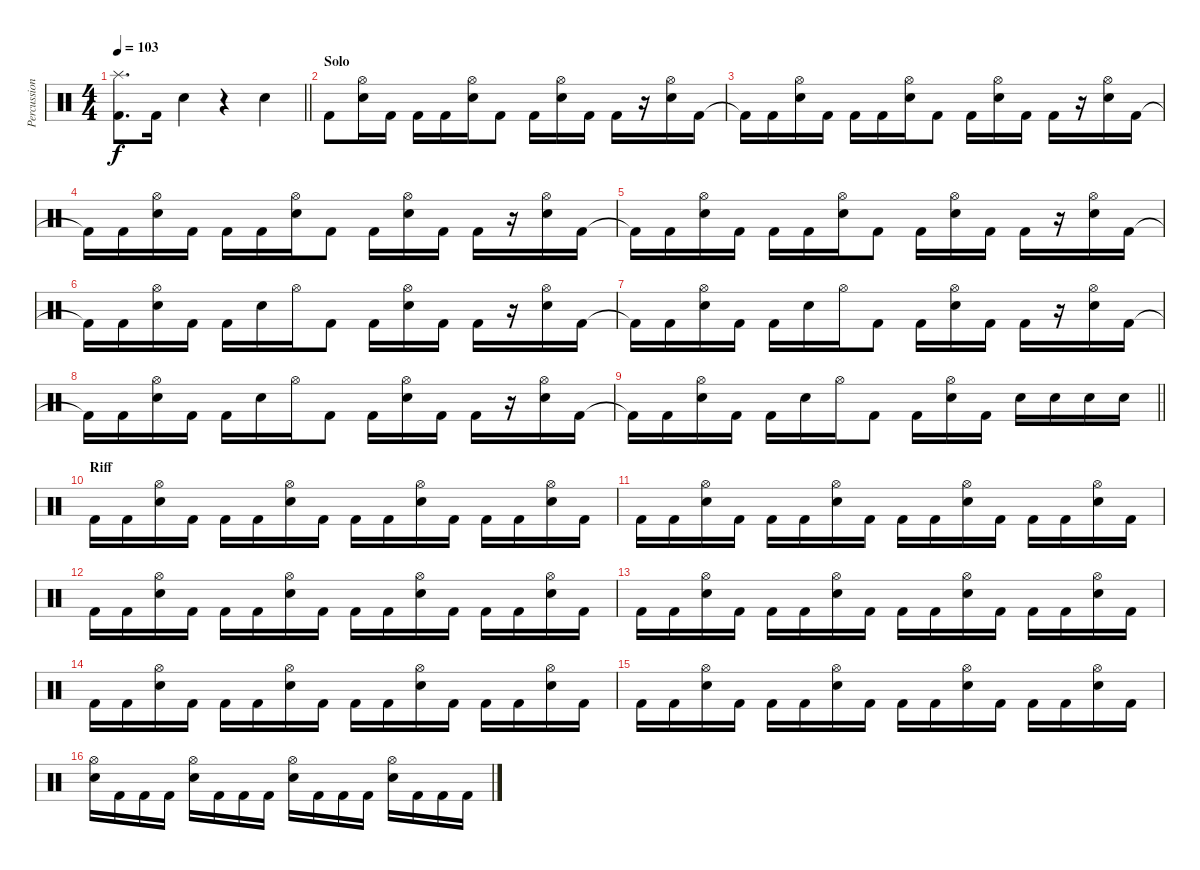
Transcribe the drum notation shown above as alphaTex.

\track ("Percussion" "Percussion") {instrument percussion}
\staff {score}
\articulation defaults
\ts (4 4)
\tempo 103
\clef neutral
\barLineRight lightlight
\ks aminor
("Splash (hit)" "Kick (hit) 2").8{d dy f} "Kick (hit) 2".16 "Electric Snare (hit)".4 r.4 "Electric Snare (hit)".4 |
\section ("" "Solo")
"Kick (hit) 2".8 ("Hi-Hat (open)" "Electric Snare (hit)").16 "Kick (hit) 2".16 "Kick (hit) 2".16 "Kick (hit) 2".16 ("Hi-Hat (open)" "Electric Snare (hit)").16 "Kick (hit) 2".8 "Kick (hit) 2".16 ("Hi-Hat (open)" "Electric Snare (hit)").16 "Kick (hit) 2".16 "Kick (hit) 2".16 r.16 ("Hi-Hat (open)" "Electric Snare (hit)").16 "Kick (hit) 2".16 |
"Kick (hit) 2"{t}.16 "Kick (hit) 2".16 ("Hi-Hat (open)" "Electric Snare (hit)").16 "Kick (hit) 2".16 "Kick (hit) 2".16 "Kick (hit) 2".16 ("Hi-Hat (open)" "Electric Snare (hit)").16 "Kick (hit) 2".8 "Kick (hit) 2".16 ("Hi-Hat (open)" "Electric Snare (hit)").16 "Kick (hit) 2".16 "Kick (hit) 2".16 r.16 ("Hi-Hat (open)" "Electric Snare (hit)").16 "Kick (hit) 2".16 |
"Kick (hit) 2"{t}.16 "Kick (hit) 2".16 ("Hi-Hat (open)" "Electric Snare (hit)").16 "Kick (hit) 2".16 "Kick (hit) 2".16 "Kick (hit) 2".16 ("Hi-Hat (open)" "Electric Snare (hit)").16 "Kick (hit) 2".8 "Kick (hit) 2".16 ("Hi-Hat (open)" "Electric Snare (hit)").16 "Kick (hit) 2".16 "Kick (hit) 2".16 r.16 ("Hi-Hat (open)" "Electric Snare (hit)").16 "Kick (hit) 2".16 |
"Kick (hit) 2"{t}.16 "Kick (hit) 2".16 ("Hi-Hat (open)" "Electric Snare (hit)").16 "Kick (hit) 2".16 "Kick (hit) 2".16 "Kick (hit) 2".16 ("Hi-Hat (open)" "Electric Snare (hit)").16 "Kick (hit) 2".8 "Kick (hit) 2".16 ("Hi-Hat (open)" "Electric Snare (hit)").16 "Kick (hit) 2".16 "Kick (hit) 2".16 r.16 ("Hi-Hat (open)" "Electric Snare (hit)").16 "Kick (hit) 2".16 |
"Kick (hit) 2"{t}.16 "Kick (hit) 2".16 ("Hi-Hat (open)" "Electric Snare (hit)").16 "Kick (hit) 2".16 "Kick (hit) 2".16 "Electric Snare (hit)".16 "Hi-Hat (open)".16 "Kick (hit) 2".8 "Kick (hit) 2".16 ("Hi-Hat (open)" "Electric Snare (hit)").16 "Kick (hit) 2".16 "Kick (hit) 2".16 r.16 ("Hi-Hat (open)" "Electric Snare (hit)").16 "Kick (hit) 2".16 |
"Kick (hit) 2"{t}.16 "Kick (hit) 2".16 ("Hi-Hat (open)" "Electric Snare (hit)").16 "Kick (hit) 2".16 "Kick (hit) 2".16 "Electric Snare (hit)".16 "Hi-Hat (open)".16 "Kick (hit) 2".8 "Kick (hit) 2".16 ("Hi-Hat (open)" "Electric Snare (hit)").16 "Kick (hit) 2".16 "Kick (hit) 2".16 r.16 ("Hi-Hat (open)" "Electric Snare (hit)").16 "Kick (hit) 2".16 |
"Kick (hit) 2"{t}.16 "Kick (hit) 2".16 ("Hi-Hat (open)" "Electric Snare (hit)").16 "Kick (hit) 2".16 "Kick (hit) 2".16 "Electric Snare (hit)".16 "Hi-Hat (open)".16 "Kick (hit) 2".8 "Kick (hit) 2".16 ("Hi-Hat (open)" "Electric Snare (hit)").16 "Kick (hit) 2".16 "Kick (hit) 2".16 r.16 ("Hi-Hat (open)" "Electric Snare (hit)").16 "Kick (hit) 2".16 |
\barLineRight lightlight "Kick (hit) 2"{t}.16 "Kick (hit) 2".16
("Hi-Hat (open)" "Electric Snare (hit)").16 "Kick (hit) 2".16 "Kick (hit) 2".16 "Electric Snare (hit)".16 "Hi-Hat (open)".16 "Kick (hit) 2".8 "Kick (hit) 2".16 ("Hi-Hat (open)" "Electric Snare (hit)").16 "Kick (hit) 2".16 "Electric Snare (hit)".16 "Electric Snare (hit)".16 "Electric Snare (hit)".16 "Electric Snare (hit)".16 |
\section ("" "Riff")
"Kick (hit) 2".16 "Kick (hit) 2".16 ("Hi-Hat (open)" "Electric Snare (hit)").16 "Kick (hit) 2".16 "Kick (hit) 2".16 "Kick (hit) 2".16 ("Hi-Hat (open)" "Electric Snare (hit)").16 "Kick (hit) 2".16 "Kick (hit) 2".16 "Kick (hit) 2".16 ("Hi-Hat (open)" "Electric Snare (hit)").16 "Kick (hit) 2".16 "Kick (hit) 2".16 "Kick (hit) 2".16 ("Hi-Hat (open)" "Electric Snare (hit)").16 "Kick (hit) 2".16 |
"Kick (hit) 2".16 "Kick (hit) 2".16 ("Hi-Hat (open)" "Electric Snare (hit)").16 "Kick (hit) 2".16 "Kick (hit) 2".16 "Kick (hit) 2".16 ("Hi-Hat (open)" "Electric Snare (hit)").16 "Kick (hit) 2".16 "Kick (hit) 2".16 "Kick (hit) 2".16 ("Hi-Hat (open)" "Electric Snare (hit)").16 "Kick (hit) 2".16 "Kick (hit) 2".16 "Kick (hit) 2".16 ("Hi-Hat (open)" "Electric Snare (hit)").16 "Kick (hit) 2".16 |
"Kick (hit) 2".16 "Kick (hit) 2".16 ("Hi-Hat (open)" "Electric Snare (hit)").16 "Kick (hit) 2".16 "Kick (hit) 2".16 "Kick (hit) 2".16 ("Hi-Hat (open)" "Electric Snare (hit)").16 "Kick (hit) 2".16 "Kick (hit) 2".16 "Kick (hit) 2".16 ("Hi-Hat (open)" "Electric Snare (hit)").16 "Kick (hit) 2".16 "Kick (hit) 2".16 "Kick (hit) 2".16 ("Hi-Hat (open)" "Electric Snare (hit)").16 "Kick (hit) 2".16 |
"Kick (hit) 2".16 "Kick (hit) 2".16 ("Hi-Hat (open)" "Electric Snare (hit)").16 "Kick (hit) 2".16 "Kick (hit) 2".16 "Kick (hit) 2".16 ("Hi-Hat (open)" "Electric Snare (hit)").16 "Kick (hit) 2".16 "Kick (hit) 2".16 "Kick (hit) 2".16 ("Hi-Hat (open)" "Electric Snare (hit)").16 "Kick (hit) 2".16 "Kick (hit) 2".16 "Kick (hit) 2".16 ("Hi-Hat (open)" "Electric Snare (hit)").16 "Kick (hit) 2".16 |
"Kick (hit) 2".16 "Kick (hit) 2".16 ("Hi-Hat (open)" "Electric Snare (hit)").16 "Kick (hit) 2".16 "Kick (hit) 2".16 "Kick (hit) 2".16 ("Hi-Hat (open)" "Electric Snare (hit)").16 "Kick (hit) 2".16 "Kick (hit) 2".16 "Kick (hit) 2".16 ("Hi-Hat (open)" "Electric Snare (hit)").16 "Kick (hit) 2".16 "Kick (hit) 2".16 "Kick (hit) 2".16 ("Hi-Hat (open)" "Electric Snare (hit)").16 "Kick (hit) 2".16 |
"Kick (hit) 2".16 "Kick (hit) 2".16 ("Hi-Hat (open)" "Electric Snare (hit)").16 "Kick (hit) 2".16 "Kick (hit) 2".16 "Kick (hit) 2".16 ("Hi-Hat (open)" "Electric Snare (hit)").16 "Kick (hit) 2".16 "Kick (hit) 2".16 "Kick (hit) 2".16 ("Hi-Hat (open)" "Electric Snare (hit)").16 "Kick (hit) 2".16 "Kick (hit) 2".16 "Kick (hit) 2".16 ("Hi-Hat (open)" "Electric Snare (hit)").16 "Kick (hit) 2".16 |
("Hi-Hat (open)" "Electric Snare (hit)").16 "Kick (hit) 2".16 "Kick (hit) 2".16 "Kick (hit) 2".16 ("Hi-Hat (open)" "Electric Snare (hit)").16 "Kick (hit) 2".16 "Kick (hit) 2".16 "Kick (hit) 2".16 ("Hi-Hat (open)" "Electric Snare (hit)").16 "Kick (hit) 2".16 "Kick (hit) 2".16 "Kick (hit) 2".16 ("Hi-Hat (open)" "Electric Snare (hit)").16 "Kick (hit) 2".16 "Kick (hit) 2".16 "Kick (hit) 2".16
